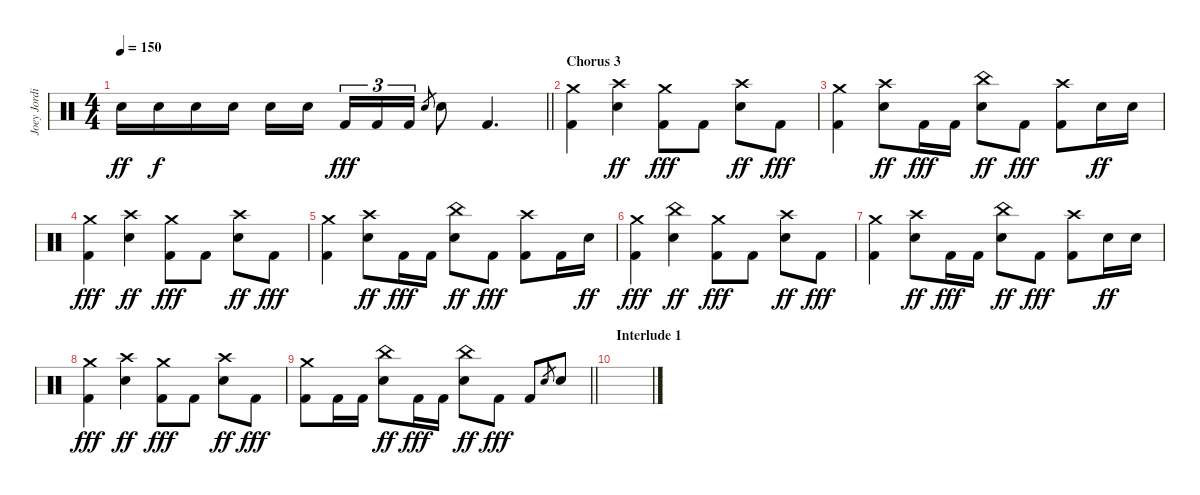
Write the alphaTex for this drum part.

\track ("Joey Jordison" "Joey Jordi") {instrument percussion}
\staff {score}
\articulation defaults
\ts (4 4)
\tempo 150
\clef neutral
\barLineRight lightlight
\ks c "Electric Snare (hit)".16{dy ff} "Electric Snare (hit)".16{dy f} "Electric Snare (hit)".16 "Electric Snare (hit)".16 "Electric Snare (hit)".16 "Electric Snare (hit)".16{beam splitsecondary} "Kick (hit) 2".16{tu (3 2) dy fff} "Kick (hit) 2".16{tu (3 2)} "Kick (hit) 2".16{tu (3 2)} "Electric Snare (hit)".8{gr} "Electric Snare (hit)".8 "Kick (hit) 2".4{d}
|
\section ("" "Chorus 3")
("Crash medium (hit)" "Kick (hit) 2").4 ("Crash high (hit)" "Electric Snare (hit)").4{dy ff} ("Crash medium (hit)" "Kick (hit) 2").8{dy fff} "Kick (hit) 2".8 ("Crash high (hit)" "Electric Snare (hit)").8{dy ff} "Kick (hit) 2".8{dy fff} |
("Crash medium (hit)" "Kick (hit) 2").4 ("Crash high (hit)" "Electric Snare (hit)").8{dy ff} "Kick (hit) 2".16{dy fff} "Kick (hit) 2".16 ("China (hit)" "Electric Snare (hit)").8{dy ff} "Kick (hit) 2".8{dy fff} ("Crash high (hit)" "Kick (hit) 2").8 "Electric Snare (hit)".16{dy ff} "Electric Snare (hit)".16 |
("Crash medium (hit)" "Kick (hit) 2").4{dy fff} ("Crash high (hit)" "Electric Snare (hit)").4{dy ff} ("Crash medium (hit)" "Kick (hit) 2").8{dy fff} "Kick (hit) 2".8 ("Crash high (hit)" "Electric Snare (hit)").8{dy ff} "Kick (hit) 2".8{dy fff} |
("Crash medium (hit)" "Kick (hit) 2").4 ("Crash high (hit)" "Electric Snare (hit)").8{dy ff} "Kick (hit) 2".16{dy fff} "Kick (hit) 2".16 ("China (hit)" "Electric Snare (hit)").8{dy ff} "Kick (hit) 2".8{dy fff} ("Crash high (hit)" "Kick (hit) 2").8 "Kick (hit) 2".16 "Electric Snare (hit)".16{dy ff} |
("Crash medium (hit)" "Kick (hit) 2").4{dy fff} ("China (hit)" "Electric Snare (hit)").4{dy ff} ("Crash medium (hit)" "Kick (hit) 2").8{dy fff} "Kick (hit) 2".8 ("Crash high (hit)" "Electric Snare (hit)").8{dy ff} "Kick (hit) 2".8{dy fff} |
("Crash medium (hit)" "Kick (hit) 2").4 ("Crash high (hit)" "Electric Snare (hit)").8{dy ff} "Kick (hit) 2".16{dy fff} "Kick (hit) 2".16 ("China (hit)" "Electric Snare (hit)").8{dy ff} "Kick (hit) 2".8{dy fff} ("Crash high (hit)" "Kick (hit) 2").8 "Electric Snare (hit)".16{dy ff} "Electric Snare (hit)".16 |
("Crash medium (hit)" "Kick (hit) 2").4{dy fff} ("Crash high (hit)" "Electric Snare (hit)").4{dy ff} ("Crash medium (hit)" "Kick (hit) 2").8{dy fff} "Kick (hit) 2".8 ("Crash high (hit)" "Electric Snare (hit)").8{dy ff} "Kick (hit) 2".8{dy fff} |
\barLineRight lightlight
("Crash medium (hit)" "Kick (hit) 2").8 "Kick (hit) 2".16 "Kick (hit) 2".16 ("China (hit)" "Electric Snare (hit)").8{dy ff} "Kick (hit) 2".16{dy fff} "Kick (hit) 2".16 ("China (hit)" "Electric Snare (hit)").8{dy ff} "Kick (hit) 2".8{dy fff} "Kick (hit) 2".8 "Electric Snare (hit)".8{gr} "Electric Snare (hit)".8 |
\section ("" "Interlude 1")
